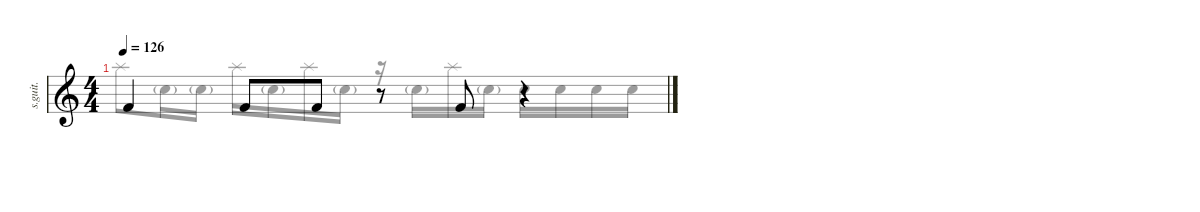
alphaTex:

\defaultSystemsLayout 4
\hideDynamics
\bracketExtendMode nobrackets
\track ("Percussion" "s.guit.") {instrument percussion}
\staff {score}
\articulation defaults
\voice
\ts (4 4)
\tempo 126
\clef g2
\ks c "Kick (hit) 2".4{lyrics (0 "") lyrics (1 "") lyrics (2 "") lyrics (3 "") lyrics (4 "") dy mf} "Kick (hit) 2".8{lyrics (0 "") lyrics (1 "") lyrics (2 "") lyrics (3 "") lyrics (4 "")} "Kick (hit) 2".8{lyrics (0 "") lyrics (1 "") lyrics (2 "") lyrics (3 "") lyrics (4 "")}
r.8 "Kick (hit) 2".8{lyrics (0 "") lyrics (1 "") lyrics (2 "") lyrics (3 "") lyrics (4 "")} r.4
\voice
\clef g2
\ottava regular
\simile none
\ks c "Splash (hit)".8{lyrics (0 "") lyrics (1 "") lyrics (2 "") lyrics (3 "") lyrics (4 "") dy mf} "Snare (hit) 2"{g}.16{lyrics (0 "") lyrics (1 "") lyrics (2 "") lyrics (3 "") lyrics (4 "")} "Snare (hit) 2"{g}.16{lyrics (0 "") lyrics (1 "") lyrics (2 "") lyrics (3 "") lyrics (4 "")} "Splash (hit)".16{lyrics (0 "") lyrics (1 "") lyrics (2 "") lyrics (3 "") lyrics (4 "")} "Snare (hit) 2"{g}.16{lyrics (0 "") lyrics (1 "") lyrics (2 "") lyrics (3 "") lyrics (4 "")} "Splash (hit)".16{lyrics (0 "") lyrics (1 "") lyrics (2 "") lyrics (3 "") lyrics (4 "")} "Snare (hit) 2"{g}.16{lyrics (0 "") lyrics (1 "") lyrics (2 "") lyrics (3 "") lyrics (4 "")}
r.16 "Snare (hit) 2"{g}.16{lyrics (0 "") lyrics (1 "") lyrics (2 "") lyrics (3 "") lyrics (4 "")} "Splash (hit)".16{lyrics (0 "") lyrics (1 "") lyrics (2 "") lyrics (3 "") lyrics (4 "")} "Snare (hit) 2"{g}.16{lyrics (0 "") lyrics (1 "") lyrics (2 "") lyrics (3 "") lyrics (4 "")} "Snare (hit) 2".16{lyrics (0 "") lyrics (1 "") lyrics (2 "") lyrics (3 "") lyrics (4 "")} "Snare (hit) 2".16{lyrics (0 "") lyrics (1 "") lyrics (2 "") lyrics (3 "") lyrics (4 "")} "Snare (hit) 2".16{lyrics (0 "") lyrics (1 "") lyrics (2 "") lyrics (3 "") lyrics (4 "")} "Snare (hit) 2".16{lyrics (0 "") lyrics (1 "") lyrics (2 "") lyrics (3 "") lyrics (4 "")}
